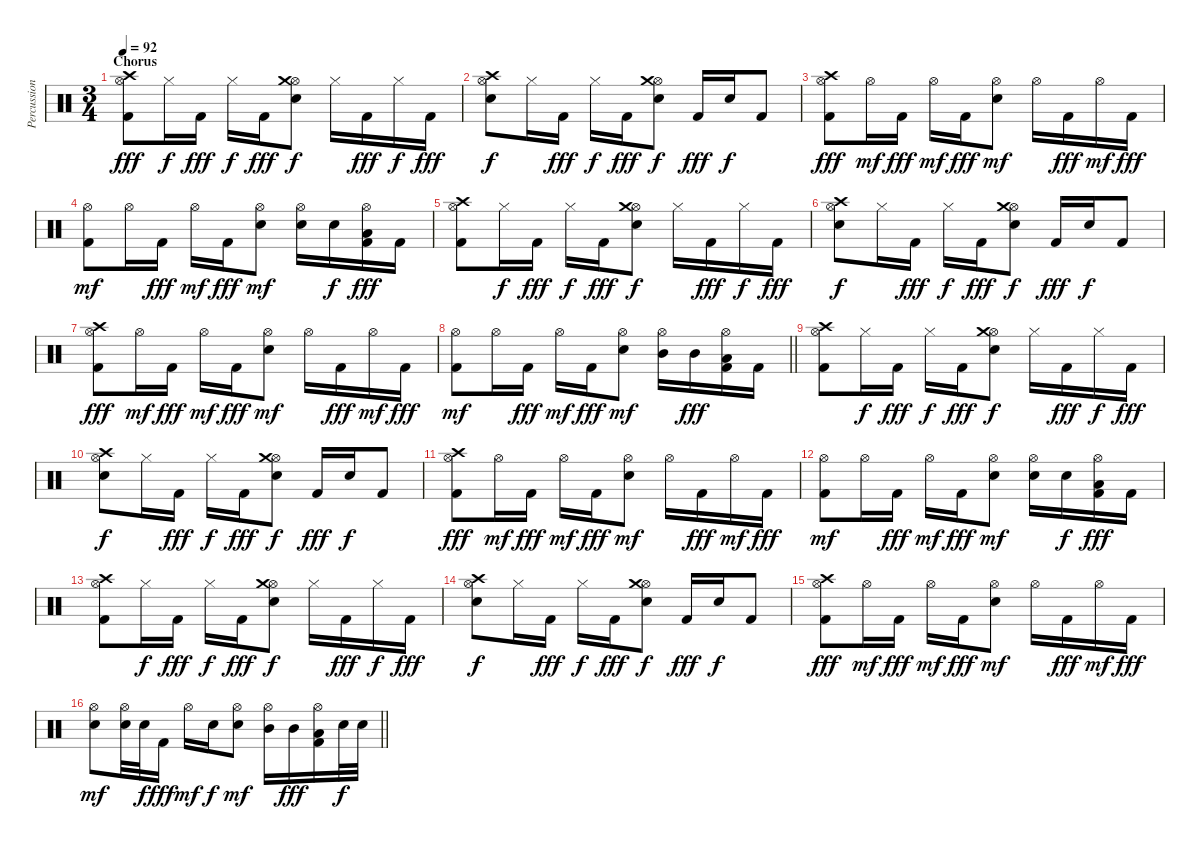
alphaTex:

\track ("Percussion" "Percussion") {instrument percussion}
\staff {score}
\articulation defaults
\ts (3 4)
\section ("" "Chorus")
\tempo 92
\clef neutral
\ks c
("Kick (hit) 2" "Hi-Hat (open)" "Crash high (hit)").8{dy fff} "Hi-Hat (closed)".16{dy f} "Kick (hit) 2".16{dy fff} "Hi-Hat (closed)".16{dy f} "Kick (hit) 2".16{dy fff} ("Electric Snare (hit)" "Hi-Hat (open)" "Crash medium (hit)").8{dy f} "Hi-Hat (closed)".16 "Kick (hit) 2".16{dy fff} "Hi-Hat (closed)".16{dy f} "Kick (hit) 2".16{dy fff} |
("Electric Snare (hit)" "Hi-Hat (open)" "Crash high (hit)").8{dy f} "Hi-Hat (closed)".16 "Kick (hit) 2".16{dy fff} "Hi-Hat (closed)".16{dy f} "Kick (hit) 2".16{dy fff} ("Electric Snare (hit)" "Hi-Hat (open)" "Crash medium (hit)").8{dy f} "Kick (hit) 2".16{dy fff} "Electric Snare (hit)".16{dy f} "Kick (hit) 2".8 |
("Kick (hit) 2" "Hi-Hat (open)" "Crash high (hit)").8{dy fff} "Hi-Hat (open)".16{dy mf} "Kick (hit) 2".16{dy fff} "Hi-Hat (open)".16{dy mf} "Kick (hit) 2".16{dy fff} ("Electric Snare (hit)" "Hi-Hat (open)").8{dy mf} "Hi-Hat (open)".16 "Kick (hit) 2".16{dy fff} "Hi-Hat (open)".16{dy mf} "Kick (hit) 2".16{dy fff} |
("Kick (hit) 2" "Hi-Hat (open)").8{dy mf} "Hi-Hat (open)".16 "Kick (hit) 2".16{dy fff} "Hi-Hat (open)".16{dy mf} "Kick (hit) 2".16{dy fff} ("Electric Snare (hit)" "Hi-Hat (open)").8{dy mf} ("Electric Snare (hit)" "Hi-Hat (open)").16 "Electric Snare (hit)".16{dy f} ("Kick (hit) 2" "Hi-Hat (open)" "Low Tom (hit)").16{dy fff} "Kick (hit) 2".16 |
("Kick (hit) 2" "Hi-Hat (open)" "Crash high (hit)").8 "Hi-Hat (closed)".16{dy f} "Kick (hit) 2".16{dy fff} "Hi-Hat (closed)".16{dy f} "Kick (hit) 2".16{dy fff} ("Electric Snare (hit)" "Hi-Hat (open)" "Crash medium (hit)").8{dy f} "Hi-Hat (closed)".16 "Kick (hit) 2".16{dy fff} "Hi-Hat (closed)".16{dy f} "Kick (hit) 2".16{dy fff} |
("Electric Snare (hit)" "Hi-Hat (open)" "Crash high (hit)").8{dy f} "Hi-Hat (closed)".16 "Kick (hit) 2".16{dy fff} "Hi-Hat (closed)".16{dy f} "Kick (hit) 2".16{dy fff} ("Electric Snare (hit)" "Hi-Hat (open)" "Crash medium (hit)").8{dy f} "Kick (hit) 2".16{dy fff} "Electric Snare (hit)".16{dy f} "Kick (hit) 2".8 |
("Kick (hit) 2" "Hi-Hat (open)" "Crash high (hit)").8{dy fff} "Hi-Hat (open)".16{dy mf} "Kick (hit) 2".16{dy fff} "Hi-Hat (open)".16{dy mf} "Kick (hit) 2".16{dy fff} ("Electric Snare (hit)" "Hi-Hat (open)").8{dy mf} "Hi-Hat (open)".16 "Kick (hit) 2".16{dy fff} "Hi-Hat (open)".16{dy mf} "Kick (hit) 2".16{dy fff} |
\barLineRight lightlight
("Kick (hit) 2" "Hi-Hat (open)").8{dy mf} "Hi-Hat (open)".16 "Kick (hit) 2".16{dy fff} "Hi-Hat (open)".16{dy mf} "Kick (hit) 2".16{dy fff} ("Electric Snare (hit)" "Hi-Hat (open)").8{dy mf} ("Mid Tom (hit)" "Hi-Hat (open)").16 "Mid Tom (hit)".16{dy fff} ("Kick (hit) 2" "Hi-Hat (open)" "Low Tom (hit)").16 "Kick (hit) 2".16 |
("Kick (hit) 2" "Hi-Hat (open)" "Crash high (hit)").8 "Hi-Hat (closed)".16{dy f} "Kick (hit) 2".16{dy fff} "Hi-Hat (closed)".16{dy f} "Kick (hit) 2".16{dy fff} ("Electric Snare (hit)" "Hi-Hat (open)" "Crash medium (hit)").8{dy f} "Hi-Hat (closed)".16 "Kick (hit) 2".16{dy fff} "Hi-Hat (closed)".16{dy f} "Kick (hit) 2".16{dy fff} |
("Electric Snare (hit)" "Hi-Hat (open)" "Crash high (hit)").8{dy f} "Hi-Hat (closed)".16 "Kick (hit) 2".16{dy fff} "Hi-Hat (closed)".16{dy f} "Kick (hit) 2".16{dy fff} ("Electric Snare (hit)" "Hi-Hat (open)" "Crash medium (hit)").8{dy f} "Kick (hit) 2".16{dy fff} "Electric Snare (hit)".16{dy f} "Kick (hit) 2".8 |
("Kick (hit) 2" "Hi-Hat (open)" "Crash high (hit)").8{dy fff} "Hi-Hat (open)".16{dy mf} "Kick (hit) 2".16{dy fff} "Hi-Hat (open)".16{dy mf} "Kick (hit) 2".16{dy fff} ("Electric Snare (hit)" "Hi-Hat (open)").8{dy mf} "Hi-Hat (open)".16 "Kick (hit) 2".16{dy fff} "Hi-Hat (open)".16{dy mf} "Kick (hit) 2".16{dy fff} |
("Kick (hit) 2" "Hi-Hat (open)").8{dy mf} "Hi-Hat (open)".16 "Kick (hit) 2".16{dy fff} "Hi-Hat (open)".16{dy mf} "Kick (hit) 2".16{dy fff} ("Electric Snare (hit)" "Hi-Hat (open)").8{dy mf} ("Electric Snare (hit)" "Hi-Hat (open)").16 "Electric Snare (hit)".16{dy f} ("Kick (hit) 2" "Hi-Hat (open)" "Low Tom (hit)").16{dy fff} "Kick (hit) 2".16 |
("Kick (hit) 2" "Hi-Hat (open)" "Crash high (hit)").8 "Hi-Hat (closed)".16{dy f} "Kick (hit) 2".16{dy fff} "Hi-Hat (closed)".16{dy f} "Kick (hit) 2".16{dy fff} ("Electric Snare (hit)" "Hi-Hat (open)" "Crash medium (hit)").8{dy f} "Hi-Hat (closed)".16 "Kick (hit) 2".16{dy fff} "Hi-Hat (closed)".16{dy f} "Kick (hit) 2".16{dy fff} |
("Electric Snare (hit)" "Hi-Hat (open)" "Crash high (hit)").8{dy f} "Hi-Hat (closed)".16 "Kick (hit) 2".16{dy fff} "Hi-Hat (closed)".16{dy f} "Kick (hit) 2".16{dy fff} ("Electric Snare (hit)" "Hi-Hat (open)" "Crash medium (hit)").8{dy f} "Kick (hit) 2".16{dy fff} "Electric Snare (hit)".16{dy f} "Kick (hit) 2".8 |
("Kick (hit) 2" "Hi-Hat (open)" "Crash high (hit)").8{dy fff} "Hi-Hat (open)".16{dy mf} "Kick (hit) 2".16{dy fff} "Hi-Hat (open)".16{dy mf} "Kick (hit) 2".16{dy fff} ("Electric Snare (hit)" "Hi-Hat (open)").8{dy mf} "Hi-Hat (open)".16 "Kick (hit) 2".16{dy fff} "Hi-Hat (open)".16{dy mf} "Kick (hit) 2".16{dy fff} |
\barLineRight lightlight
("Electric Snare (hit)" "Hi-Hat (open)").8{dy mf} ("Electric Snare (hit)" "Hi-Hat (open)").32 "Electric Snare (hit)".32{dy f} "Kick (hit) 2".16{dy fff} "Hi-Hat (open)".16{dy mf} "Electric Snare (hit)".16{dy f} ("Electric Snare (hit)" "Hi-Hat (open)").8{dy mf} ("Mid Tom (hit)" "Hi-Hat (open)").16 "Mid Tom (hit)".16{dy fff} ("Kick (hit) 2" "Hi-Hat (open)" "Low Tom (hit)").16 "Electric Snare (hit)".32{dy f} "Electric Snare (hit)".32
